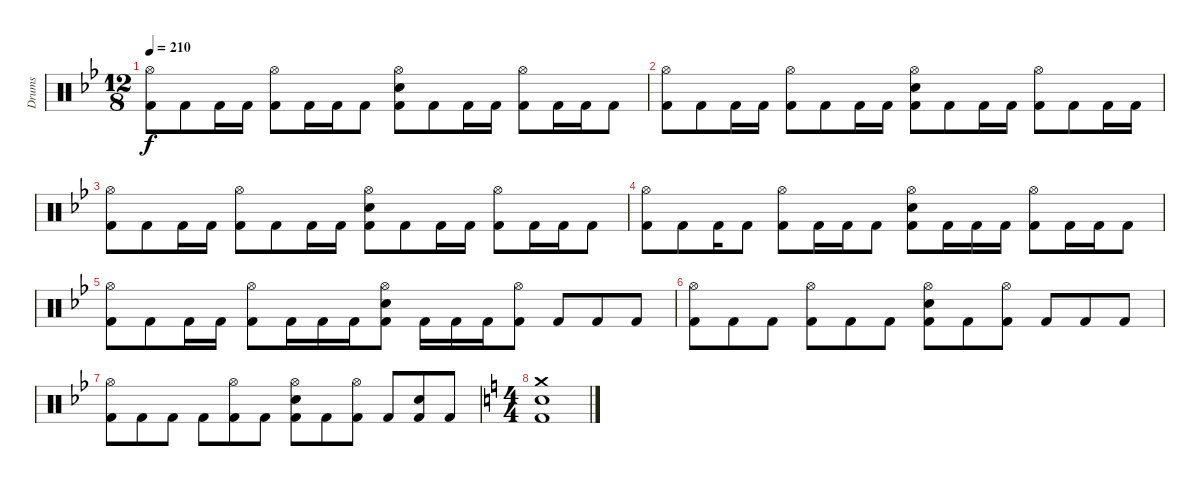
\track ("Drums" "Drums") {instrument percussion}
\staff {score}
\articulation defaults
\ts (12 8)
\tempo 210
\clef neutral
\ks bb
("Hi-Hat (open)" "Kick (hit) 2").8{dy f} "Kick (hit) 2".8 "Kick (hit) 2".16 "Kick (hit) 2".16 ("Hi-Hat (open)" "Kick (hit) 2").8 "Kick (hit) 2".16 "Kick (hit) 2".16 "Kick (hit) 2".8 ("Hi-Hat (open)" "Snare (hit) 2" "Kick (hit) 2").8 "Kick (hit) 2".8 "Kick (hit) 2".16 "Kick (hit) 2".16 ("Hi-Hat (open)" "Kick (hit) 2").8 "Kick (hit) 2".16 "Kick (hit) 2".16 "Kick (hit) 2".8 |
("Hi-Hat (open)" "Kick (hit) 2").8 "Kick (hit) 2".8 "Kick (hit) 2".16 "Kick (hit) 2".16 ("Hi-Hat (open)" "Kick (hit) 2").8 "Kick (hit) 2".8 "Kick (hit) 2".16 "Kick (hit) 2".16 ("Hi-Hat (open)" "Snare (hit) 2" "Kick (hit) 2").8 "Kick (hit) 2".8 "Kick (hit) 2".16 "Kick (hit) 2".16 ("Hi-Hat (open)" "Kick (hit) 2").8 "Kick (hit) 2".8 "Kick (hit) 2".16 "Kick (hit) 2".16 |
("Hi-Hat (open)" "Kick (hit) 2").8 "Kick (hit) 2".8 "Kick (hit) 2".16 "Kick (hit) 2".16 ("Hi-Hat (open)" "Kick (hit) 2").8 "Kick (hit) 2".8 "Kick (hit) 2".16 "Kick (hit) 2".16 ("Hi-Hat (open)" "Snare (hit) 2" "Kick (hit) 2").8 "Kick (hit) 2".8 "Kick (hit) 2".16 "Kick (hit) 2".16 ("Hi-Hat (open)" "Kick (hit) 2").8 "Kick (hit) 2".16 "Kick (hit) 2".16 "Kick (hit) 2".8 |
("Hi-Hat (open)" "Kick (hit) 2").8 "Kick (hit) 2".8 "Kick (hit) 2".16 "Kick (hit) 2".8 ("Hi-Hat (open)" "Kick (hit) 2").8 "Kick (hit) 2".16 "Kick (hit) 2".16 "Kick (hit) 2".8 ("Hi-Hat (open)" "Snare (hit) 2" "Kick (hit) 2").8 "Kick (hit) 2".16 "Kick (hit) 2".16 "Kick (hit) 2".16 ("Hi-Hat (open)" "Kick (hit) 2").8 "Kick (hit) 2".16 "Kick (hit) 2".16 "Kick (hit) 2".8 |
("Hi-Hat (open)" "Kick (hit) 2").8 "Kick (hit) 2".8 "Kick (hit) 2".16 "Kick (hit) 2".16 ("Hi-Hat (open)" "Kick (hit) 2").8 "Kick (hit) 2".16 "Kick (hit) 2".16 "Kick (hit) 2".16 ("Hi-Hat (open)" "Snare (hit) 2" "Kick (hit) 2").8 "Kick (hit) 2".16 "Kick (hit) 2".16 "Kick (hit) 2".16 ("Hi-Hat (open)" "Kick (hit) 2").8 "Kick (hit) 2".8 "Kick (hit) 2".8 "Kick (hit) 2".8 |
("Hi-Hat (open)" "Kick (hit) 2").8 "Kick (hit) 2".8 "Kick (hit) 2".8 ("Hi-Hat (open)" "Kick (hit) 2").8 "Kick (hit) 2".8 "Kick (hit) 2".8 ("Hi-Hat (open)" "Snare (hit) 2" "Kick (hit) 2").8 "Kick (hit) 2".8 ("Hi-Hat (open)" "Kick (hit) 2").8 "Kick (hit) 2".8 "Kick (hit) 2".8 "Kick (hit) 2".8 |
("Hi-Hat (open)" "Kick (hit) 2").8 "Kick (hit) 2".8 "Kick (hit) 2".8 "Kick (hit) 2".8 ("Hi-Hat (open)" "Kick (hit) 2").8 "Kick (hit) 2".8 ("Hi-Hat (open)" "Snare (hit) 2" "Kick (hit) 2").8 "Kick (hit) 2".8 ("Hi-Hat (open)" "Kick (hit) 2").8 "Kick (hit) 2".8 ("Snare (hit) 2" "Kick (hit) 2").8 "Kick (hit) 2".8 |
\ts (4 4)
\ks c
("Crash medium (hit)" "Snare (hit) 2" "Kick (hit) 2").1
